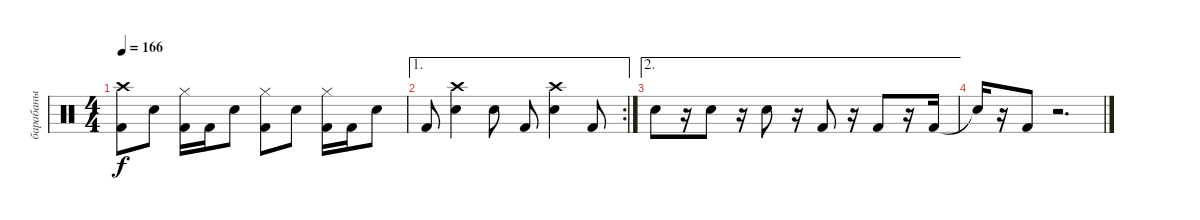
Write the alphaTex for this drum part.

\track ("барабаны" "барабаны") {instrument percussion}
\staff {score}
\articulation defaults
\ts (4 4)
\tempo 166
\clef neutral
\ks c
("Crash high (hit)" "Kick (hit) 2").8{dy f} "Snare (hit) 2".8 ("Hi-Hat (closed)" "Kick (hit) 2").16 "Kick (hit) 2".16 "Snare (hit) 2".8 ("Hi-Hat (closed)" "Kick (hit) 2").8 "Snare (hit) 2".8 ("Hi-Hat (closed)" "Kick (hit) 2").16 "Kick (hit) 2".16 "Snare (hit) 2".8 |
\ae 1
\rc 2 "Kick (hit) 2".8
("Crash high (hit)" "Snare (hit) 2").4 "Snare (hit) 2".8 "Kick (hit) 2".8 ("Crash high (hit)" "Snare (hit) 2").4 "Kick (hit) 2".8 |
\ae 2 "Snare (hit) 2".8
r.16 "Snare (hit) 2".8 r.16 "Snare (hit) 2".8 r.16 "Kick (hit) 2".8 r.16 "Kick (hit) 2".8 r.16 "Kick (hit) 2".16 |
"Snare (hit)"{t}.16 r.16 "Kick (hit) 2".8 r.2{d}
